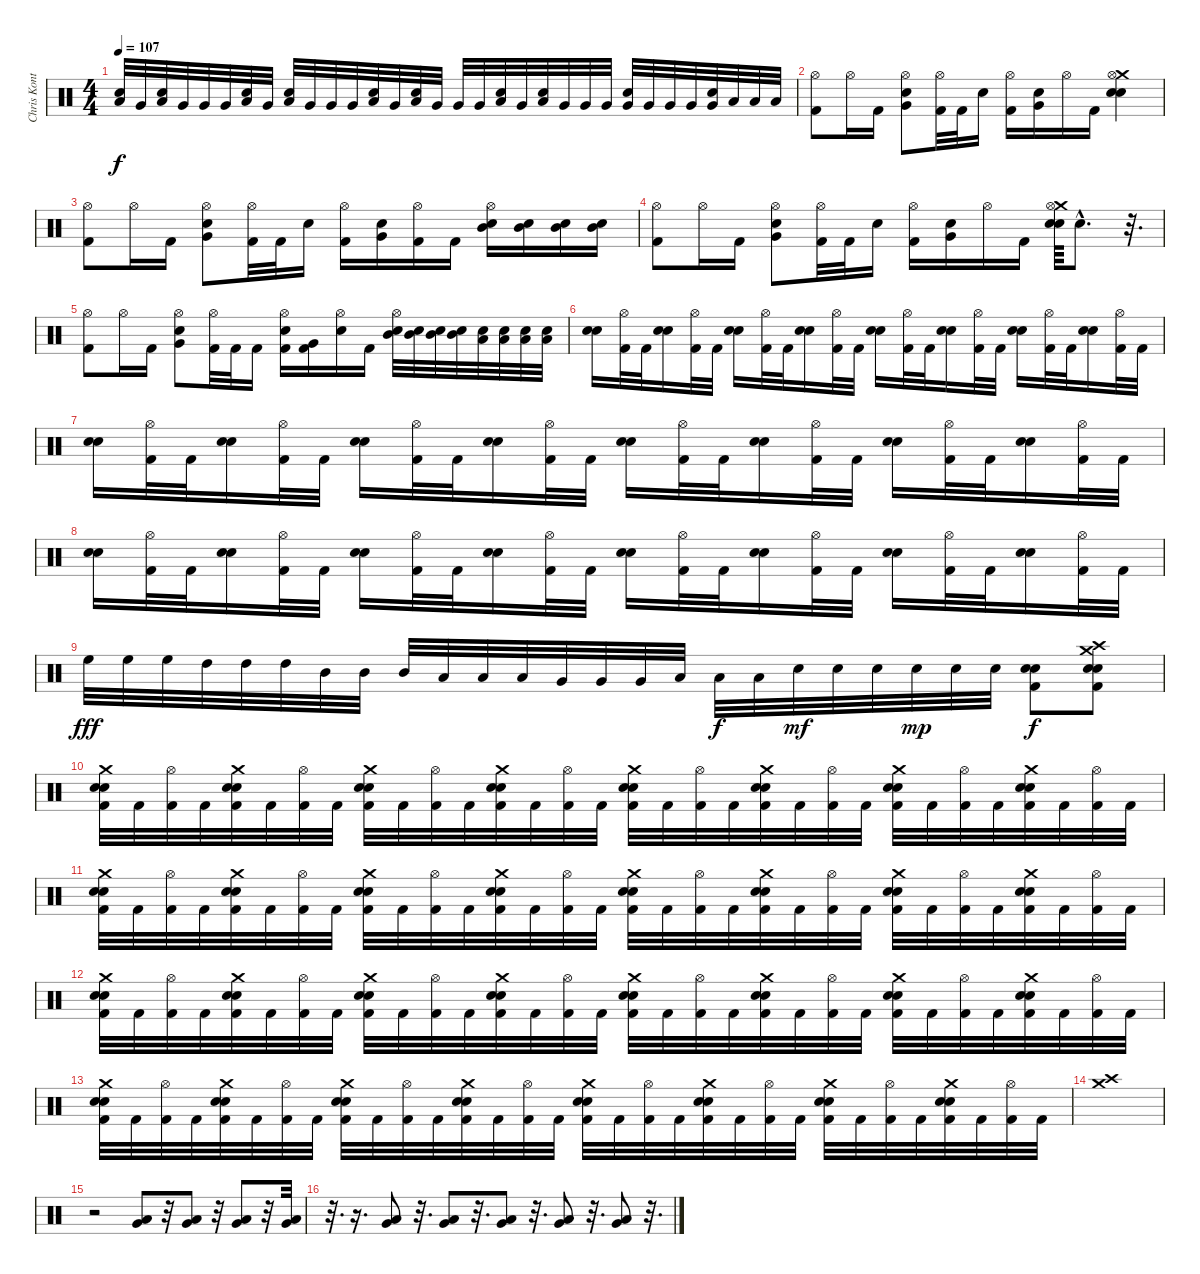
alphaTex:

\track ("Chris Kontos" "Chris Kont") {instrument percussion}
\staff {score}
\articulation defaults
\ts (4 4)
\tempo 107
\clef neutral
\ks c
("Low Tom (hit)" "Snare (hit) 2").32{dy f} "Very Low Tom (hit)".32 ("Low Tom (hit)" "Snare (hit) 2").32 "Very Low Tom (hit)".32 "Very Low Tom (hit)".32 "Very Low Tom (hit)".32 ("Low Tom (hit)" "Snare (hit) 2").32 "Very Low Tom (hit)".32 ("Low Tom (hit)" "Snare (hit) 2").32 "Very Low Tom (hit)".32 "Very Low Tom (hit)".32 "Very Low Tom (hit)".32 ("Low Tom (hit)" "Snare (hit) 2").32 "Very Low Tom (hit)".32 ("Low Tom (hit)" "Snare (hit) 2").32 "Very Low Tom (hit)".32 "Very Low Tom (hit)".32 "Very Low Tom (hit)".32 ("Low Tom (hit)" "Snare (hit) 2").32 "Very Low Tom (hit)".32 ("Low Tom (hit)" "Snare (hit) 2").32 "Very Low Tom (hit)".32 "Very Low Tom (hit)".32 "Very Low Tom (hit)".32 ("Very Low Tom (hit)" "Snare (hit) 2").32 "Very Low Tom (hit)".32 "Very Low Tom (hit)".32 "Very Low Tom (hit)".32 ("Very Low Tom (hit)" "Snare (hit) 2").32 "Low Floor Tom (hit)".32 "Low Floor Tom (hit)".32 "Low Floor Tom (hit)".32 |
("Hi-Hat (open)" "Kick (hit) 2").8 "Hi-Hat (open)".16 "Kick (hit) 2".16 ("Very Low Tom (hit)" "Hi-Hat (open)" "Electric Snare (hit)").8 ("Hi-Hat (open)" "Kick (hit) 2").32 "Kick (hit) 2".32 "Electric Snare (hit)".16 ("Hi-Hat (open)" "Kick (hit) 2").16 ("Very Low Tom (hit)" "Electric Snare (hit)").16 "Hi-Hat (open)".16 "Kick (hit) 2".16 ("Snare (hit) 2" "Crash medium (hit)" "Hi-Hat (open)" "Electric Snare (hit)").4 |
("Hi-Hat (open)" "Kick (hit) 2").8 "Hi-Hat (open)".16 "Kick (hit) 2".16 ("Very Low Tom (hit)" "Hi-Hat (open)" "Electric Snare (hit)").8 ("Hi-Hat (open)" "Kick (hit) 2").32 "Kick (hit) 2".32 "Electric Snare (hit)".16 ("Hi-Hat (open)" "Kick (hit) 2").16 ("Very Low Tom (hit)" "Electric Snare (hit)").16 ("Hi-Hat (open)" "Kick (hit) 2").16 "Kick (hit) 2".16 ("Mid Tom (hit)" "Hi-Hat (open)" "Electric Snare (hit)").16 ("Mid Tom (hit)" "Electric Snare (hit)").16 ("Mid Tom (hit)" "Electric Snare (hit)").16 ("Mid Tom (hit)" "Electric Snare (hit)").16 |
("Hi-Hat (open)" "Kick (hit) 2").8 "Hi-Hat (open)".16 "Kick (hit) 2".16 ("Very Low Tom (hit)" "Hi-Hat (open)" "Electric Snare (hit)").8 ("Hi-Hat (open)" "Kick (hit) 2").32 "Kick (hit) 2".32 "Electric Snare (hit)".16 ("Hi-Hat (open)" "Kick (hit) 2").16 ("Very Low Tom (hit)" "Electric Snare (hit)").16 "Hi-Hat (open)".16 "Kick (hit) 2".16 ("Snare (hit) 2" "Crash medium (hit)" "Hi-Hat (open)" "Electric Snare (hit)").64 "Snare (hit) 2"{hac}.8{d} r.32{d} |
("Hi-Hat (open)" "Kick (hit) 2").8 "Hi-Hat (open)".16 "Kick (hit) 2".16 ("Very Low Tom (hit)" "Hi-Hat (open)" "Electric Snare (hit)").8 ("Hi-Hat (open)" "Kick (hit) 2").32 "Kick (hit) 2".32 "Kick (hit) 2".16 ("Hi-Hat (open)" "Electric Snare (hit)" "Kick (hit) 2").16 ("Very Low Tom (hit)" "Kick (hit) 2").16 ("Hi-Hat (open)" "Electric Snare (hit)").16 "Kick (hit) 2".16 ("Mid Tom (hit)" "Hi-Hat (open)" "Electric Snare (hit)").32 ("Mid Tom (hit)" "Electric Snare (hit)").32 ("Mid Tom (hit)" "Electric Snare (hit)").32 ("Mid Tom (hit)" "Electric Snare (hit)").32 ("Low Tom (hit)" "Electric Snare (hit)").32 ("Low Tom (hit)" "Electric Snare (hit)").32 ("Low Tom (hit)" "Electric Snare (hit)").32 ("Low Tom (hit)" "Electric Snare (hit)").32 |
("Snare (hit) 2" "Electric Snare (hit)").16 ("Hi-Hat (open)" "Kick (hit) 2").32 "Kick (hit) 2".32 ("Snare (hit) 2" "Electric Snare (hit)").16 ("Hi-Hat (open)" "Kick (hit) 2").32 "Kick (hit) 2".32 ("Snare (hit) 2" "Electric Snare (hit)").16 ("Hi-Hat (open)" "Kick (hit) 2").32 "Kick (hit) 2".32 ("Snare (hit) 2" "Electric Snare (hit)").16 ("Hi-Hat (open)" "Kick (hit) 2").32 "Kick (hit) 2".32 ("Snare (hit) 2" "Electric Snare (hit)").16 ("Hi-Hat (open)" "Kick (hit) 2").32 "Kick (hit) 2".32 ("Snare (hit) 2" "Electric Snare (hit)").16 ("Hi-Hat (open)" "Kick (hit) 2").32 "Kick (hit) 2".32 ("Snare (hit) 2" "Electric Snare (hit)").16 ("Hi-Hat (open)" "Kick (hit) 2").32 "Kick (hit) 2".32 ("Snare (hit) 2" "Electric Snare (hit)").16 ("Hi-Hat (open)" "Kick (hit) 2").32 "Kick (hit) 2".32 |
("Snare (hit) 2" "Electric Snare (hit)").16 ("Hi-Hat (open)" "Kick (hit) 2").32 "Kick (hit) 2".32 ("Snare (hit) 2" "Electric Snare (hit)").16 ("Hi-Hat (open)" "Kick (hit) 2").32 "Kick (hit) 2".32 ("Snare (hit) 2" "Electric Snare (hit)").16 ("Hi-Hat (open)" "Kick (hit) 2").32 "Kick (hit) 2".32 ("Snare (hit) 2" "Electric Snare (hit)").16 ("Hi-Hat (open)" "Kick (hit) 2").32 "Kick (hit) 2".32 ("Snare (hit) 2" "Electric Snare (hit)").16 ("Hi-Hat (open)" "Kick (hit) 2").32 "Kick (hit) 2".32 ("Snare (hit) 2" "Electric Snare (hit)").16 ("Hi-Hat (open)" "Kick (hit) 2").32 "Kick (hit) 2".32 ("Snare (hit) 2" "Electric Snare (hit)").16 ("Hi-Hat (open)" "Kick (hit) 2").32 "Kick (hit) 2".32 ("Snare (hit) 2" "Electric Snare (hit)").16 ("Hi-Hat (open)" "Kick (hit) 2").32 "Kick (hit) 2".32 |
("Snare (hit) 2" "Electric Snare (hit)").16 ("Hi-Hat (open)" "Kick (hit) 2").32 "Kick (hit) 2".32 ("Snare (hit) 2" "Electric Snare (hit)").16 ("Hi-Hat (open)" "Kick (hit) 2").32 "Kick (hit) 2".32 ("Snare (hit) 2" "Electric Snare (hit)").16 ("Hi-Hat (open)" "Kick (hit) 2").32 "Kick (hit) 2".32 ("Snare (hit) 2" "Electric Snare (hit)").16 ("Hi-Hat (open)" "Kick (hit) 2").32 "Kick (hit) 2".32 ("Snare (hit) 2" "Electric Snare (hit)").16 ("Hi-Hat (open)" "Kick (hit) 2").32 "Kick (hit) 2".32 ("Snare (hit) 2" "Electric Snare (hit)").16 ("Hi-Hat (open)" "Kick (hit) 2").32 "Kick (hit) 2".32 ("Snare (hit) 2" "Electric Snare (hit)").16 ("Hi-Hat (open)" "Kick (hit) 2").32 "Kick (hit) 2".32 ("Snare (hit) 2" "Electric Snare (hit)").16 ("Hi-Hat (open)" "Kick (hit) 2").32 "Kick (hit) 2".32 |
"High Floor Tom (hit)".32{dy fff} "High Floor Tom (hit)".32 "High Floor Tom (hit)".32 "High Tom (hit)".32 "High Tom (hit)".32 "High Tom (hit)".32 "Mid Tom (hit)".32 "Mid Tom (hit)".32 "Mid Tom (hit)".32 "Low Tom (hit)".32 "Low Tom (hit)".32 "Low Tom (hit)".32 "Very Low Tom (hit)".32 "Very Low Tom (hit)".32 "Very Low Tom (hit)".32 "Low Floor Tom (hit)".32 "Low Floor Tom (hit)".32{dy f} "Low Floor Tom (hit)".32 "Electric Snare (hit)".32{dy mf} "Electric Snare (hit)".32 "Electric Snare (hit)".32 "Snare (hit) 2".32{dy mp} "Snare (hit) 2".32 "Snare (hit) 2".32 ("Snare (hit) 2" "Electric Snare (hit)" "Kick (hit) 2").8{dy f} ("Crash medium (hit)" "Snare (hit) 2" "Crash high (hit)" "Electric Snare (hit)" "Kick (hit) 2").8 |
("Snare (hit) 2" "Crash medium (hit)" "Electric Snare (hit)" "Kick (hit) 2").32 "Kick (hit) 2".32 ("Hi-Hat (open)" "Kick (hit) 2").32 "Kick (hit) 2".32 ("Snare (hit) 2" "Crash medium (hit)" "Electric Snare (hit)" "Kick (hit) 2").32 "Kick (hit) 2".32 ("Hi-Hat (open)" "Kick (hit) 2").32 "Kick (hit) 2".32 ("Snare (hit) 2" "Crash medium (hit)" "Electric Snare (hit)" "Kick (hit) 2").32 "Kick (hit) 2".32 ("Hi-Hat (open)" "Kick (hit) 2").32 "Kick (hit) 2".32 ("Snare (hit) 2" "Crash medium (hit)" "Electric Snare (hit)" "Kick (hit) 2").32 "Kick (hit) 2".32 ("Hi-Hat (open)" "Kick (hit) 2").32 "Kick (hit) 2".32 ("Snare (hit) 2" "Crash medium (hit)" "Electric Snare (hit)" "Kick (hit) 2").32 "Kick (hit) 2".32 ("Hi-Hat (open)" "Kick (hit) 2").32 "Kick (hit) 2".32 ("Snare (hit) 2" "Crash medium (hit)" "Electric Snare (hit)" "Kick (hit) 2").32 "Kick (hit) 2".32 ("Hi-Hat (open)" "Kick (hit) 2").32 "Kick (hit) 2".32 ("Snare (hit) 2" "Crash medium (hit)" "Electric Snare (hit)" "Kick (hit) 2").32 "Kick (hit) 2".32 ("Hi-Hat (open)" "Kick (hit) 2").32 "Kick (hit) 2".32 ("Snare (hit) 2" "Crash medium (hit)" "Electric Snare (hit)" "Kick (hit) 2").32 "Kick (hit) 2".32 ("Hi-Hat (open)" "Kick (hit) 2").32 "Kick (hit) 2".32 |
("Snare (hit) 2" "Crash medium (hit)" "Electric Snare (hit)" "Kick (hit) 2").32 "Kick (hit) 2".32 ("Hi-Hat (open)" "Kick (hit) 2").32 "Kick (hit) 2".32 ("Snare (hit) 2" "Crash medium (hit)" "Electric Snare (hit)" "Kick (hit) 2").32 "Kick (hit) 2".32 ("Hi-Hat (open)" "Kick (hit) 2").32 "Kick (hit) 2".32 ("Snare (hit) 2" "Crash medium (hit)" "Electric Snare (hit)" "Kick (hit) 2").32 "Kick (hit) 2".32 ("Hi-Hat (open)" "Kick (hit) 2").32 "Kick (hit) 2".32 ("Snare (hit) 2" "Crash medium (hit)" "Electric Snare (hit)" "Kick (hit) 2").32 "Kick (hit) 2".32 ("Hi-Hat (open)" "Kick (hit) 2").32 "Kick (hit) 2".32 ("Snare (hit) 2" "Crash medium (hit)" "Electric Snare (hit)" "Kick (hit) 2").32 "Kick (hit) 2".32 ("Hi-Hat (open)" "Kick (hit) 2").32 "Kick (hit) 2".32 ("Snare (hit) 2" "Crash medium (hit)" "Electric Snare (hit)" "Kick (hit) 2").32 "Kick (hit) 2".32 ("Hi-Hat (open)" "Kick (hit) 2").32 "Kick (hit) 2".32 ("Snare (hit) 2" "Crash medium (hit)" "Electric Snare (hit)" "Kick (hit) 2").32 "Kick (hit) 2".32 ("Hi-Hat (open)" "Kick (hit) 2").32 "Kick (hit) 2".32 ("Snare (hit) 2" "Crash medium (hit)" "Electric Snare (hit)" "Kick (hit) 2").32 "Kick (hit) 2".32 ("Hi-Hat (open)" "Kick (hit) 2").32 "Kick (hit) 2".32 |
("Snare (hit) 2" "Crash medium (hit)" "Electric Snare (hit)" "Kick (hit) 2").32 "Kick (hit) 2".32 ("Hi-Hat (open)" "Kick (hit) 2").32 "Kick (hit) 2".32 ("Snare (hit) 2" "Crash medium (hit)" "Electric Snare (hit)" "Kick (hit) 2").32 "Kick (hit) 2".32 ("Hi-Hat (open)" "Kick (hit) 2").32 "Kick (hit) 2".32 ("Snare (hit) 2" "Crash medium (hit)" "Electric Snare (hit)" "Kick (hit) 2").32 "Kick (hit) 2".32 ("Hi-Hat (open)" "Kick (hit) 2").32 "Kick (hit) 2".32 ("Snare (hit) 2" "Crash medium (hit)" "Electric Snare (hit)" "Kick (hit) 2").32 "Kick (hit) 2".32 ("Hi-Hat (open)" "Kick (hit) 2").32 "Kick (hit) 2".32 ("Snare (hit) 2" "Crash medium (hit)" "Electric Snare (hit)" "Kick (hit) 2").32 "Kick (hit) 2".32 ("Hi-Hat (open)" "Kick (hit) 2").32 "Kick (hit) 2".32 ("Snare (hit) 2" "Crash medium (hit)" "Electric Snare (hit)" "Kick (hit) 2").32 "Kick (hit) 2".32 ("Hi-Hat (open)" "Kick (hit) 2").32 "Kick (hit) 2".32 ("Snare (hit) 2" "Crash medium (hit)" "Electric Snare (hit)" "Kick (hit) 2").32 "Kick (hit) 2".32 ("Hi-Hat (open)" "Kick (hit) 2").32 "Kick (hit) 2".32 ("Snare (hit) 2" "Crash medium (hit)" "Electric Snare (hit)" "Kick (hit) 2").32 "Kick (hit) 2".32 ("Hi-Hat (open)" "Kick (hit) 2").32 "Kick (hit) 2".32 |
("Snare (hit) 2" "Crash medium (hit)" "Electric Snare (hit)" "Kick (hit) 2").32 "Kick (hit) 2".32 ("Hi-Hat (open)" "Kick (hit) 2").32 "Kick (hit) 2".32 ("Snare (hit) 2" "Crash medium (hit)" "Electric Snare (hit)" "Kick (hit) 2").32 "Kick (hit) 2".32 ("Hi-Hat (open)" "Kick (hit) 2").32 "Kick (hit) 2".32 ("Snare (hit) 2" "Crash medium (hit)" "Electric Snare (hit)" "Kick (hit) 2").32 "Kick (hit) 2".32 ("Hi-Hat (open)" "Kick (hit) 2").32 "Kick (hit) 2".32 ("Snare (hit) 2" "Crash medium (hit)" "Electric Snare (hit)" "Kick (hit) 2").32 "Kick (hit) 2".32 ("Hi-Hat (open)" "Kick (hit) 2").32 "Kick (hit) 2".32 ("Snare (hit) 2" "Crash medium (hit)" "Electric Snare (hit)" "Kick (hit) 2").32 "Kick (hit) 2".32 ("Hi-Hat (open)" "Kick (hit) 2").32 "Kick (hit) 2".32 ("Snare (hit) 2" "Crash medium (hit)" "Electric Snare (hit)" "Kick (hit) 2").32 "Kick (hit) 2".32 ("Hi-Hat (open)" "Kick (hit) 2").32 "Kick (hit) 2".32 ("Snare (hit) 2" "Crash medium (hit)" "Electric Snare (hit)" "Kick (hit) 2").32 "Kick (hit) 2".32 ("Hi-Hat (open)" "Kick (hit) 2").32 "Kick (hit) 2".32 ("Snare (hit) 2" "Crash medium (hit)" "Electric Snare (hit)" "Kick (hit) 2").32 "Kick (hit) 2".32 ("Hi-Hat (open)" "Kick (hit) 2").32 "Kick (hit) 2".32 |
("Crash high (hit)" "Crash medium (hit)").1 |
r.2 ("Low Floor Tom (hit)" "Very Low Tom (hit)").8 r.32 ("Low Floor Tom (hit)" "Very Low Tom (hit)").8 r.32 ("Low Floor Tom (hit)" "Very Low Tom (hit)").8 r.32 ("Low Floor Tom (hit)" "Very Low Tom (hit)").32 |
r.32{d} r.16{d} ("Low Floor Tom (hit)" "Very Low Tom (hit)").8 r.32{d} ("Low Floor Tom (hit)" "Very Low Tom (hit)").8 r.32{d} ("Low Floor Tom (hit)" "Very Low Tom (hit)").8 r.32{d} ("Low Floor Tom (hit)" "Very Low Tom (hit)").8 r.32{d} ("Low Floor Tom (hit)" "Very Low Tom (hit)").8 r.32{d}
